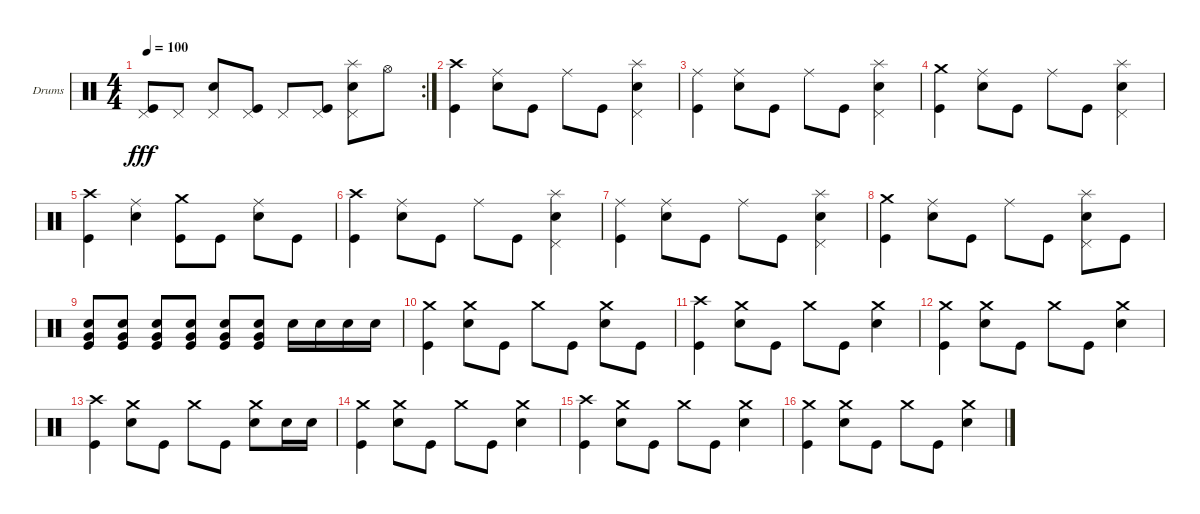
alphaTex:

\defaultSystemsLayout 4
\bracketExtendMode groupsimilarinstruments
\firstSystemTrackNameOrientation horizontal
\otherSystemsTrackNameOrientation horizontal
\track ("Drumkit" "Drums") {instrument percussion}
\staff {score}
\articulation defaults
\rc 2
\ts (4 4)
\tempo 100
\clef neutral
\scale
0.355932
\ks c
("Pedal Hi-Hat (hit)" "Kick (hit)").8{dy fff} "Pedal Hi-Hat (hit)".8 ("Pedal Hi-Hat (hit)" "Snare (hit) 2").8 ("Pedal Hi-Hat (hit)" "Kick (hit)").8 "Pedal Hi-Hat (hit)".8 ("Pedal Hi-Hat (hit)" "Kick (hit)").8 ("Pedal Hi-Hat (hit)" "Splash (hit)" "Snare (hit) 2").8 "Hi-Hat (open)".8 |
\scale
0.333333 ("Crash high (hit)" "Kick (hit)").4 ("Ride (middle)" "Snare (hit) 2").8 "Kick (hit)".8 "Ride (middle)".8 "Kick (hit)".8 ("Pedal Hi-Hat (hit)" "Splash (hit)" "Snare (hit) 2").4 |
\scale
0.333333 ("Ride (middle)" "Kick (hit)").4 ("Ride (middle)" "Snare (hit) 2").8 "Kick (hit)".8 "Ride (middle)".8 "Kick (hit)".8 ("Pedal Hi-Hat (hit)" "Splash (hit)" "Snare (hit) 2").4 |
\scale
0.333333 ("Crash medium (hit)" "Kick (hit)").4 ("Ride (middle)" "Snare (hit) 2").8 "Kick (hit)".8 "Ride (middle)".8 "Kick (hit)".8 ("Pedal Hi-Hat (hit)" "Splash (hit)" "Snare (hit) 2").4 |
\scale
0.333333 ("Crash high (hit)" "Kick (hit)").4 ("Ride (middle)" "Snare (hit) 2").4 ("Crash medium (hit)" "Kick (hit)").8 "Kick (hit)".8 ("Ride (middle)" "Snare (hit) 2").8 "Kick (hit)".8 |
\scale
0.333333 ("Crash high (hit)" "Kick (hit)").4 ("Ride (middle)" "Snare (hit) 2").8 "Kick (hit)".8 "Ride (middle)".8 "Kick (hit)".8 ("Pedal Hi-Hat (hit)" "Splash (hit)" "Snare (hit) 2").4 |
\scale
0.333333 ("Ride (middle)" "Kick (hit)").4 ("Ride (middle)" "Snare (hit) 2").8 "Kick (hit)".8 "Ride (middle)".8 "Kick (hit)".8 ("Pedal Hi-Hat (hit)" "Splash (hit)" "Snare (hit) 2").4 |
\scale
0.333333 ("Crash medium (hit)" "Kick (hit)").4 ("Ride (middle)" "Snare (hit) 2").8 "Kick (hit)".8 "Ride (middle)".8 "Kick (hit)".8 ("Pedal Hi-Hat (hit)" "Splash (hit)" "Snare (hit) 2").8 "Kick (hit)".8 |
\scale
0.333333 ("Very Low Tom (hit)" "Snare (hit) 2" "Kick (hit)").8 ("Very Low Tom (hit)" "Snare (hit) 2" "Kick (hit)").8 ("Very Low Tom (hit)" "Snare (hit) 2" "Kick (hit)").8 ("Very Low Tom (hit)" "Snare (hit) 2" "Kick (hit)").8 ("Very Low Tom (hit)" "Snare (hit) 2" "Kick (hit)").8 ("Very Low Tom (hit)" "Snare (hit) 2" "Kick (hit)").8 "Snare (hit) 2".16 "Snare (hit) 2".16 "Snare (hit) 2".16 "Snare (hit) 2".16 |
\scale
0.333333 ("Crash medium (hit)" "Kick (hit)").4 ("Crash medium (hit)" "Snare (hit) 2").8 "Kick (hit)".8 "Crash medium (hit)".8 "Kick (hit)".8 ("Crash medium (hit)" "Snare (hit) 2").8 "Kick (hit)".8 |
\scale
0.333333 ("Crash high (hit)" "Kick (hit)").4 ("Crash medium (hit)" "Snare (hit) 2").8 "Kick (hit)".8 "Crash medium (hit)".8 "Kick (hit)".8 ("Crash medium (hit)" "Snare (hit) 2").4 |
\scale
0.333333 ("Crash medium (hit)" "Kick (hit)").4 ("Crash medium (hit)" "Snare (hit) 2").8 "Kick (hit)".8 "Crash medium (hit)".8 "Kick (hit)".8 ("Crash medium (hit)" "Snare (hit) 2").4 |
\scale
0.333333 ("Crash high (hit)" "Kick (hit)").4 ("Crash medium (hit)" "Snare (hit) 2").8 "Kick (hit)".8 "Crash medium (hit)".8 "Kick (hit)".8 ("Crash medium (hit)" "Snare (hit) 2").8 "Snare (hit) 2".16 "Snare (hit) 2".16 |
\scale
0.333333 ("Crash medium (hit)" "Kick (hit)").4 ("Crash medium (hit)" "Snare (hit) 2").8 "Kick (hit)".8 "Crash medium (hit)".8 "Kick (hit)".8 ("Crash medium (hit)" "Snare (hit) 2").4 |
\scale
0.333333 ("Crash high (hit)" "Kick (hit)").4 ("Crash medium (hit)" "Snare (hit) 2").8 "Kick (hit)".8 "Crash medium (hit)".8 "Kick (hit)".8 ("Crash medium (hit)" "Snare (hit) 2").4 |
\scale
0.333333 ("Crash medium (hit)" "Kick (hit)").4 ("Crash medium (hit)" "Snare (hit) 2").8 "Kick (hit)".8 "Crash medium (hit)".8 "Kick (hit)".8 ("Crash medium (hit)" "Snare (hit) 2").4
